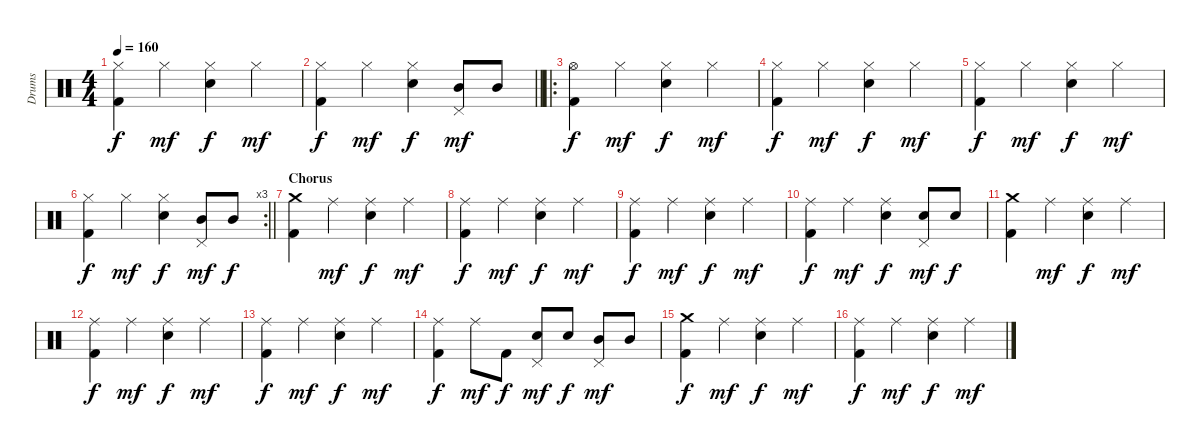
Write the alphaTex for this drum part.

\track ("Drums" "Drums") {instrument percussion}
\staff {score}
\articulation defaults
\ts (4 4)
\tempo 160
\clef neutral
\ks c
("Hi-Hat (closed)" "Kick (hit) 2").4{dy f} "Hi-Hat (closed)".4{dy mf} ("Hi-Hat (closed)" "Snare (hit) 2").4{dy f} "Hi-Hat (closed)".4{dy mf} |
\barLineRight lightlight
("Hi-Hat (closed)" "Kick (hit) 2").4{dy f} "Hi-Hat (closed)".4{dy mf} ("Hi-Hat (closed)" "Snare (hit) 2").4{dy f} ("Pedal Hi-Hat (hit)" "Mid Tom (hit)").8{dy mf} "Mid Tom (hit)".8 |
\ro
("Hi-Hat (open)" "Kick (hit) 2").4{dy f} "Hi-Hat (closed)".4{dy mf} ("Hi-Hat (closed)" "Snare (hit) 2").4{dy f} "Hi-Hat (closed)".4{dy mf} |
("Hi-Hat (closed)" "Kick (hit) 2").4{dy f} "Hi-Hat (closed)".4{dy mf} ("Hi-Hat (closed)" "Snare (hit) 2").4{dy f} "Hi-Hat (closed)".4{dy mf} |
("Hi-Hat (closed)" "Kick (hit) 2").4{dy f} "Hi-Hat (closed)".4{dy mf} ("Hi-Hat (closed)" "Snare (hit) 2").4{dy f} "Hi-Hat (closed)".4{dy mf} |
\rc 3
\barLineRight lightlight
("Hi-Hat (closed)" "Kick (hit) 2").4{dy f} "Hi-Hat (closed)".4{dy mf} ("Hi-Hat (closed)" "Snare (hit) 2").4{dy f} ("Pedal Hi-Hat (hit)" "Mid Tom (hit)").8{dy mf} "Mid Tom (hit)".8{dy f} |
\section ("" "Chorus")
("Crash medium (hit)" "Kick (hit) 2").4 "Ride (middle)".4{dy mf} ("Ride (middle)" "Snare (hit) 2").4{dy f} "Ride (middle)".4{dy mf} |
("Ride (middle)" "Kick (hit) 2").4{dy f} "Ride (middle)".4{dy mf} ("Ride (middle)" "Snare (hit) 2").4{dy f} "Ride (middle)".4{dy mf} |
("Ride (middle)" "Kick (hit) 2").4{dy f} "Ride (middle)".4{dy mf} ("Ride (middle)" "Snare (hit) 2").4{dy f} "Ride (middle)".4{dy mf} |
("Ride (middle)" "Kick (hit) 2").4{dy f} "Ride (middle)".4{dy mf} ("Ride (middle)" "Snare (hit) 2").4{dy f} ("Pedal Hi-Hat (hit)" "Snare (hit) 2").8{dy mf} "Snare (hit) 2".8{dy f} |
("Crash medium (hit)" "Kick (hit) 2").4 "Ride (middle)".4{dy mf} ("Ride (middle)" "Snare (hit) 2").4{dy f} "Ride (middle)".4{dy mf} |
("Ride (middle)" "Kick (hit) 2").4{dy f} "Ride (middle)".4{dy mf} ("Ride (middle)" "Snare (hit) 2").4{dy f} "Ride (middle)".4{dy mf} |
("Ride (middle)" "Kick (hit) 2").4{dy f} "Ride (middle)".4{dy mf} ("Ride (middle)" "Snare (hit) 2").4{dy f} "Ride (middle)".4{dy mf} |
("Ride (middle)" "Kick (hit) 2").4{dy f} "Ride (middle)".8{dy mf} "Kick (hit) 2".8{dy f} ("Pedal Hi-Hat (hit)" "Snare (hit) 2").8{dy mf} "Snare (hit) 2".8{dy f} ("Pedal Hi-Hat (hit)" "Mid Tom (hit)").8{dy mf} "Mid Tom (hit)".8 |
("Crash medium (hit)" "Kick (hit) 2").4{dy f} "Ride (middle)".4{dy mf} ("Ride (middle)" "Snare (hit) 2").4{dy f} "Ride (middle)".4{dy mf} |
("Ride (middle)" "Kick (hit) 2").4{dy f} "Ride (middle)".4{dy mf} ("Ride (middle)" "Snare (hit) 2").4{dy f} "Ride (middle)".4{dy mf}
